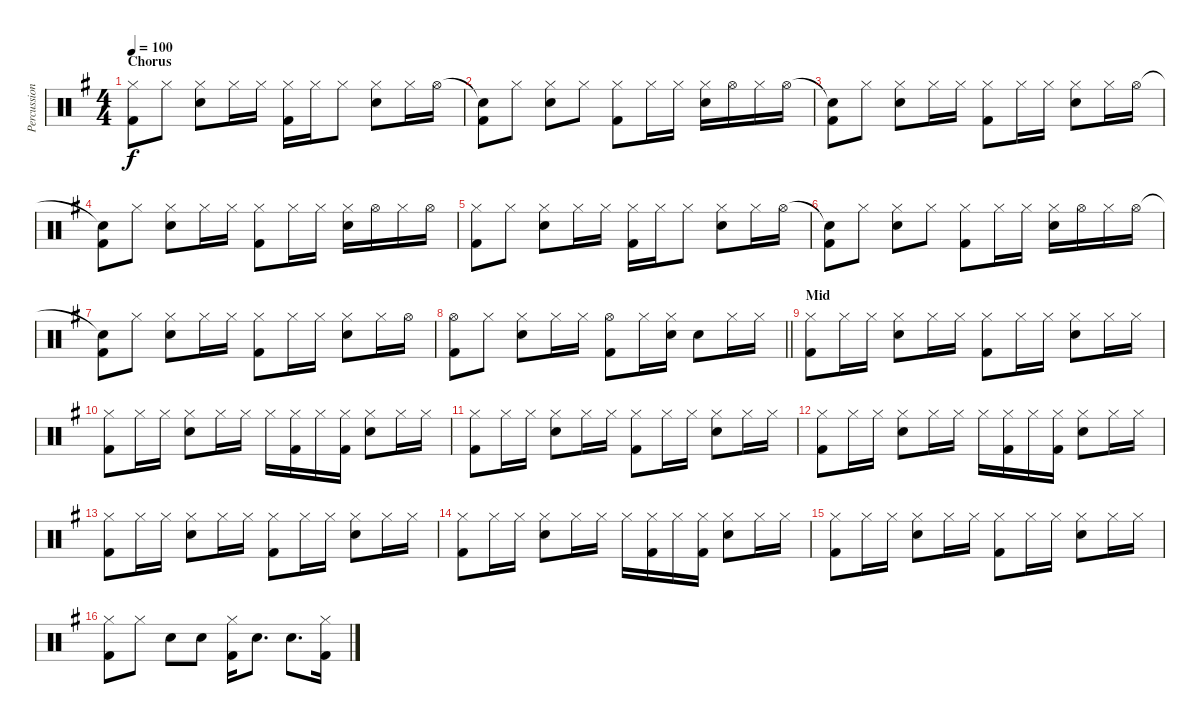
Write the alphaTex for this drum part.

\track ("Percussion" "Percussion") {instrument percussion}
\staff {score}
\articulation defaults
\ts (4 4)
\section ("" "Chorus")
\tempo 100
\clef neutral
\ks g
("Hi-Hat (closed)" "Kick (hit) 2").8{dy f} "Hi-Hat (closed)".8 ("Hi-Hat (closed)" "Electric Snare (hit)").8 "Hi-Hat (closed)".16 "Hi-Hat (closed)".16 ("Hi-Hat (closed)" "Kick (hit) 2").16 "Hi-Hat (closed)".16 "Hi-Hat (closed)".8 ("Hi-Hat (closed)" "Electric Snare (hit)").8 "Hi-Hat (closed)".16 "Hi-Hat (open)".16 |
("Snare (hit)"{t} "Kick (hit) 2").8 "Hi-Hat (closed)".8 ("Hi-Hat (closed)" "Electric Snare (hit)").8 "Hi-Hat (closed)".8 ("Hi-Hat (closed)" "Kick (hit) 2").8 "Hi-Hat (closed)".16 "Hi-Hat (closed)".16 ("Hi-Hat (closed)" "Electric Snare (hit)").16 "Hi-Hat (open)".16 "Hi-Hat (closed)".16 "Hi-Hat (open)".16 |
("Snare (hit)"{t} "Kick (hit) 2").8 "Hi-Hat (closed)".8 ("Hi-Hat (closed)" "Electric Snare (hit)").8 "Hi-Hat (closed)".16 "Hi-Hat (closed)".16 ("Hi-Hat (closed)" "Kick (hit) 2").8 "Hi-Hat (closed)".16 "Hi-Hat (closed)".16 ("Hi-Hat (closed)" "Electric Snare (hit)").8 "Hi-Hat (closed)".16 "Hi-Hat (open)".16 |
("Snare (hit)"{t} "Kick (hit) 2").8 "Hi-Hat (closed)".8 ("Hi-Hat (closed)" "Electric Snare (hit)").8 "Hi-Hat (closed)".16 "Hi-Hat (closed)".16 ("Hi-Hat (closed)" "Kick (hit) 2").8 "Hi-Hat (closed)".16 "Hi-Hat (closed)".16 ("Hi-Hat (closed)" "Electric Snare (hit)").16 "Hi-Hat (open)".16 "Hi-Hat (closed)".16 "Hi-Hat (open)".16 |
("Hi-Hat (closed)" "Kick (hit) 2").8 "Hi-Hat (closed)".8 ("Hi-Hat (closed)" "Electric Snare (hit)").8 "Hi-Hat (closed)".16 "Hi-Hat (closed)".16 ("Hi-Hat (closed)" "Kick (hit) 2").16 "Hi-Hat (closed)".16 "Hi-Hat (closed)".8 ("Hi-Hat (closed)" "Electric Snare (hit)").8 "Hi-Hat (closed)".16 "Hi-Hat (open)".16 |
("Snare (hit)"{t} "Kick (hit) 2").8 "Hi-Hat (closed)".8 ("Hi-Hat (closed)" "Electric Snare (hit)").8 "Hi-Hat (closed)".8 ("Hi-Hat (closed)" "Kick (hit) 2").8 "Hi-Hat (closed)".16 "Hi-Hat (closed)".16 ("Hi-Hat (closed)" "Electric Snare (hit)").16 "Hi-Hat (open)".16 "Hi-Hat (closed)".16 "Hi-Hat (open)".16 |
("Snare (hit)"{t} "Kick (hit) 2").8 "Hi-Hat (closed)".8 ("Hi-Hat (closed)" "Electric Snare (hit)").8 "Hi-Hat (closed)".16 "Hi-Hat (closed)".16 ("Hi-Hat (closed)" "Kick (hit) 2").8 "Hi-Hat (closed)".16 "Hi-Hat (closed)".16 ("Hi-Hat (closed)" "Electric Snare (hit)").8 "Hi-Hat (closed)".16 "Hi-Hat (open)".16 |
\barLineRight lightlight
("Hi-Hat (open)" "Kick (hit) 2").8 "Hi-Hat (closed)".8 ("Hi-Hat (closed)" "Electric Snare (hit)").8 "Hi-Hat (closed)".16 "Hi-Hat (closed)".16 ("Hi-Hat (open)" "Kick (hit) 2").8 "Hi-Hat (closed)".16 ("Hi-Hat (closed)" "Electric Snare (hit)").16 "Electric Snare (hit)".8 "Hi-Hat (closed)".16 "Hi-Hat (closed)".16 |
\section ("" "Mid")
("Hi-Hat (closed)" "Kick (hit) 2").8 "Hi-Hat (closed)".16 "Hi-Hat (closed)".16 ("Hi-Hat (closed)" "Electric Snare (hit)").8 "Hi-Hat (closed)".16 "Hi-Hat (closed)".16 ("Hi-Hat (closed)" "Kick (hit) 2").8 "Hi-Hat (closed)".16 "Hi-Hat (closed)".16 ("Hi-Hat (closed)" "Electric Snare (hit)").8 "Hi-Hat (closed)".16 "Hi-Hat (closed)".16 |
("Hi-Hat (closed)" "Kick (hit) 2").8 "Hi-Hat (closed)".16 "Hi-Hat (closed)".16 ("Hi-Hat (closed)" "Electric Snare (hit)").8 "Hi-Hat (closed)".16 "Hi-Hat (closed)".16 "Hi-Hat (closed)".16 ("Hi-Hat (closed)" "Kick (hit) 2").16 "Hi-Hat (closed)".16 ("Hi-Hat (closed)" "Kick (hit) 2").16 ("Hi-Hat (closed)" "Electric Snare (hit)").8 "Hi-Hat (closed)".16 "Hi-Hat (closed)".16 |
("Hi-Hat (closed)" "Kick (hit) 2").8 "Hi-Hat (closed)".16 "Hi-Hat (closed)".16 ("Hi-Hat (closed)" "Electric Snare (hit)").8 "Hi-Hat (closed)".16 "Hi-Hat (closed)".16 ("Hi-Hat (closed)" "Kick (hit) 2").8 "Hi-Hat (closed)".16 "Hi-Hat (closed)".16 ("Hi-Hat (closed)" "Electric Snare (hit)").8 "Hi-Hat (closed)".16 "Hi-Hat (closed)".16 |
("Hi-Hat (closed)" "Kick (hit) 2").8 "Hi-Hat (closed)".16 "Hi-Hat (closed)".16 ("Hi-Hat (closed)" "Electric Snare (hit)").8 "Hi-Hat (closed)".16 "Hi-Hat (closed)".16 "Hi-Hat (closed)".16 ("Hi-Hat (closed)" "Kick (hit) 2").16 "Hi-Hat (closed)".16 ("Hi-Hat (closed)" "Kick (hit) 2").16 ("Hi-Hat (closed)" "Electric Snare (hit)").8 "Hi-Hat (closed)".16 "Hi-Hat (closed)".16 |
("Hi-Hat (closed)" "Kick (hit) 2").8 "Hi-Hat (closed)".16 "Hi-Hat (closed)".16 ("Hi-Hat (closed)" "Electric Snare (hit)").8 "Hi-Hat (closed)".16 "Hi-Hat (closed)".16 ("Hi-Hat (closed)" "Kick (hit) 2").8 "Hi-Hat (closed)".16 "Hi-Hat (closed)".16 ("Hi-Hat (closed)" "Electric Snare (hit)").8 "Hi-Hat (closed)".16 "Hi-Hat (closed)".16 |
("Hi-Hat (closed)" "Kick (hit) 2").8 "Hi-Hat (closed)".16 "Hi-Hat (closed)".16 ("Hi-Hat (closed)" "Electric Snare (hit)").8 "Hi-Hat (closed)".16 "Hi-Hat (closed)".16 "Hi-Hat (closed)".16 ("Hi-Hat (closed)" "Kick (hit) 2").16 "Hi-Hat (closed)".16 ("Hi-Hat (closed)" "Kick (hit) 2").16 ("Hi-Hat (closed)" "Electric Snare (hit)").8 "Hi-Hat (closed)".16 "Hi-Hat (closed)".16 |
("Hi-Hat (closed)" "Kick (hit) 2").8 "Hi-Hat (closed)".16 "Hi-Hat (closed)".16 ("Hi-Hat (closed)" "Electric Snare (hit)").8 "Hi-Hat (closed)".16 "Hi-Hat (closed)".16 ("Hi-Hat (closed)" "Kick (hit) 2").8 "Hi-Hat (closed)".16 "Hi-Hat (closed)".16 ("Hi-Hat (closed)" "Electric Snare (hit)").8 "Hi-Hat (closed)".16 "Hi-Hat (closed)".16 |
("Hi-Hat (closed)" "Kick (hit) 2").8 "Hi-Hat (closed)".8 "Electric Snare (hit)".8 "Electric Snare (hit)".8 ("Hi-Hat (closed)" "Kick (hit) 2").16 "Electric Snare (hit)".8{d} "Electric Snare (hit)".8{d} ("Hi-Hat (closed)" "Kick (hit) 2").16
